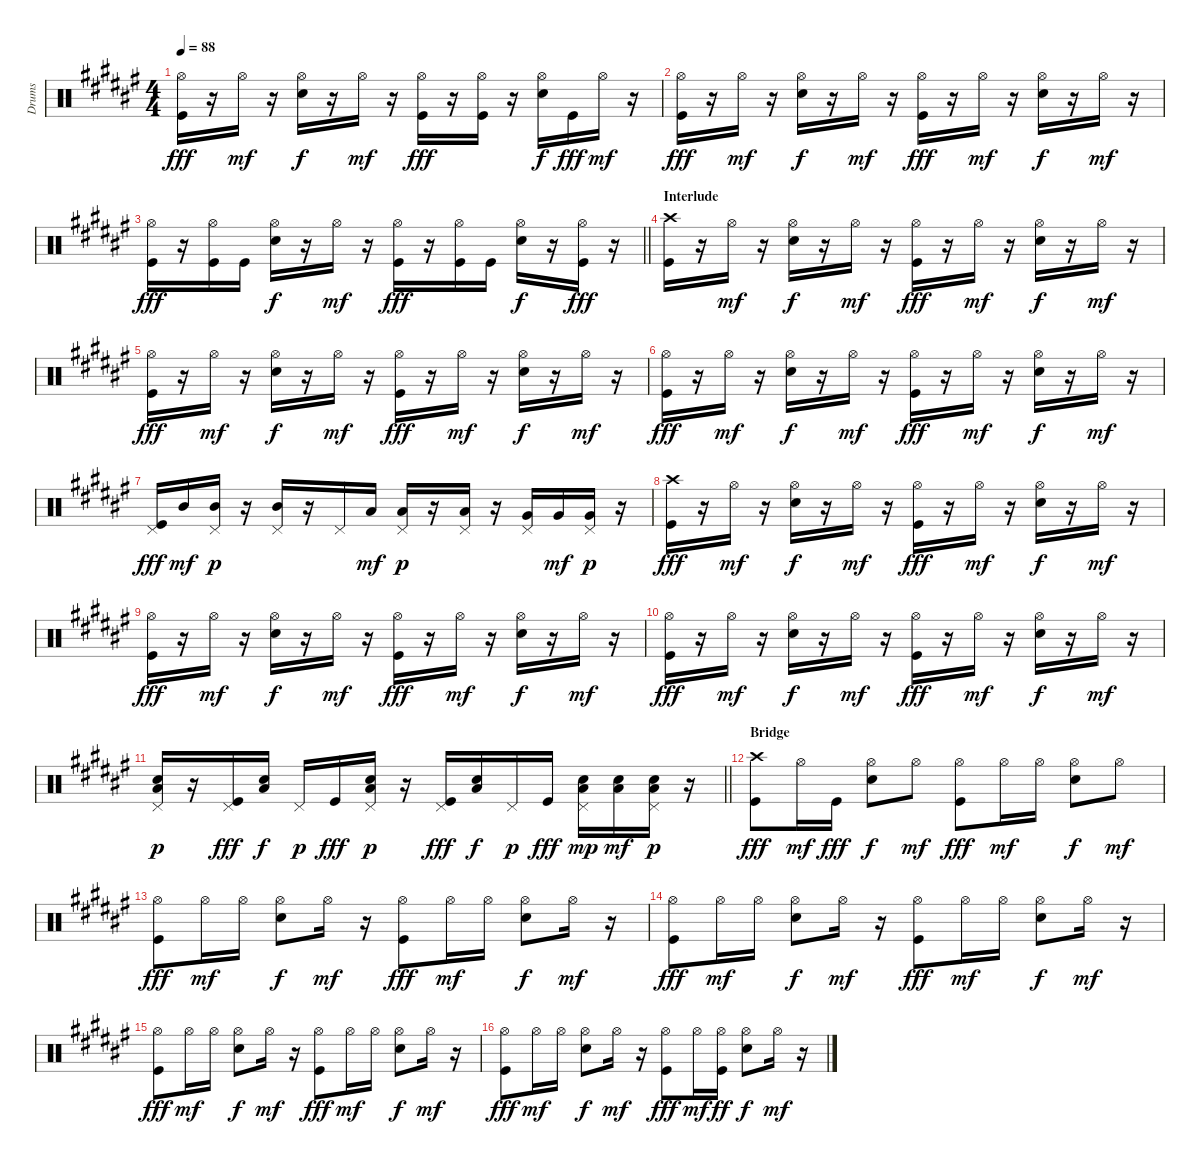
\track ("Drums" "Drums") {instrument percussion}
\staff {score}
\articulation defaults
\ts (4 4)
\tempo 88
\clef neutral
\ks f#
("Hi-Hat (open)" "Kick (hit)").16{dy fff} r.16 "Hi-Hat (open)".16{dy mf} r.16 ("Hi-Hat (open)" "Snare (hit) 2").16{dy f} r.16 "Hi-Hat (open)".16{dy mf} r.16 ("Hi-Hat (open)" "Kick (hit)").16{dy fff} r.16 ("Hi-Hat (open)" "Kick (hit)").16 r.16 ("Hi-Hat (open)" "Snare (hit) 2").16{dy f} "Kick (hit)".16{dy fff} "Hi-Hat (open)".16{dy mf} r.16 |
("Hi-Hat (open)" "Kick (hit)").16{dy fff} r.16 "Hi-Hat (open)".16{dy mf} r.16 ("Hi-Hat (open)" "Snare (hit) 2").16{dy f} r.16 "Hi-Hat (open)".16{dy mf} r.16 ("Hi-Hat (open)" "Kick (hit)").16{dy fff} r.16 "Hi-Hat (open)".16{dy mf} r.16 ("Hi-Hat (open)" "Snare (hit) 2").16{dy f} r.16 "Hi-Hat (open)".16{dy mf} r.16 |
\barLineRight lightlight
("Hi-Hat (open)" "Kick (hit)").16{dy fff} r.16 ("Hi-Hat (open)" "Kick (hit)").16 "Kick (hit)".16 ("Hi-Hat (open)" "Snare (hit) 2").16{dy f} r.16 "Hi-Hat (open)".16{dy mf} r.16 ("Hi-Hat (open)" "Kick (hit)").16{dy fff} r.16 ("Hi-Hat (open)" "Kick (hit)").16 "Kick (hit)".16 ("Hi-Hat (open)" "Snare (hit) 2").16{dy f} r.16 ("Hi-Hat (open)" "Kick (hit)").16{dy fff} r.16 |
\section ("" "Interlude")
("Crash high (hit)" "Kick (hit)").16 r.16 "Hi-Hat (open)".16{dy mf} r.16 ("Hi-Hat (open)" "Snare (hit) 2").16{dy f} r.16 "Hi-Hat (open)".16{dy mf} r.16 ("Hi-Hat (open)" "Kick (hit)").16{dy fff} r.16 "Hi-Hat (open)".16{dy mf} r.16 ("Hi-Hat (open)" "Snare (hit) 2").16{dy f} r.16 "Hi-Hat (open)".16{dy mf} r.16 |
("Hi-Hat (open)" "Kick (hit)").16{dy fff} r.16 "Hi-Hat (open)".16{dy mf} r.16 ("Hi-Hat (open)" "Snare (hit) 2").16{dy f} r.16 "Hi-Hat (open)".16{dy mf} r.16 ("Hi-Hat (open)" "Kick (hit)").16{dy fff} r.16 "Hi-Hat (open)".16{dy mf} r.16 ("Hi-Hat (open)" "Snare (hit) 2").16{dy f} r.16 "Hi-Hat (open)".16{dy mf} r.16 |
("Hi-Hat (open)" "Kick (hit)").16{dy fff} r.16 "Hi-Hat (open)".16{dy mf} r.16 ("Hi-Hat (open)" "Snare (hit) 2").16{dy f} r.16 "Hi-Hat (open)".16{dy mf} r.16 ("Hi-Hat (open)" "Kick (hit)").16{dy fff} r.16 "Hi-Hat (open)".16{dy mf} r.16 ("Hi-Hat (open)" "Snare (hit) 2").16{dy f} r.16 "Hi-Hat (open)".16{dy mf} r.16 |
("Pedal Hi-Hat (hit)" "Kick (hit)").16{dy fff} "Mid Tom (hit)".16{dy mf} ("Pedal Hi-Hat (hit)" "Mid Tom (hit)").16{dy p} r.16 ("Pedal Hi-Hat (hit)" "Mid Tom (hit)").16 r.16 "Pedal Hi-Hat (hit)".16 "Low Tom (hit)".16{dy mf} ("Pedal Hi-Hat (hit)" "Low Tom (hit)").16{dy p} r.16 ("Pedal Hi-Hat (hit)" "Low Tom (hit)").16 r.16 ("Pedal Hi-Hat (hit)" "Very Low Tom (hit)").16 "Very Low Tom (hit)".16{dy mf} ("Pedal Hi-Hat (hit)" "Very Low Tom (hit)").16{dy p} r.16 |
("Crash high (hit)" "Kick (hit)").16{dy fff} r.16 "Hi-Hat (open)".16{dy mf} r.16 ("Hi-Hat (open)" "Snare (hit) 2").16{dy f} r.16 "Hi-Hat (open)".16{dy mf} r.16 ("Hi-Hat (open)" "Kick (hit)").16{dy fff} r.16 "Hi-Hat (open)".16{dy mf} r.16 ("Hi-Hat (open)" "Snare (hit) 2").16{dy f} r.16 "Hi-Hat (open)".16{dy mf} r.16 |
("Hi-Hat (open)" "Kick (hit)").16{dy fff} r.16 "Hi-Hat (open)".16{dy mf} r.16 ("Hi-Hat (open)" "Snare (hit) 2").16{dy f} r.16 "Hi-Hat (open)".16{dy mf} r.16 ("Hi-Hat (open)" "Kick (hit)").16{dy fff} r.16 "Hi-Hat (open)".16{dy mf} r.16 ("Hi-Hat (open)" "Snare (hit) 2").16{dy f} r.16 "Hi-Hat (open)".16{dy mf} r.16 |
("Hi-Hat (open)" "Kick (hit)").16{dy fff} r.16 "Hi-Hat (open)".16{dy mf} r.16 ("Hi-Hat (open)" "Snare (hit) 2").16{dy f} r.16 "Hi-Hat (open)".16{dy mf} r.16 ("Hi-Hat (open)" "Kick (hit)").16{dy fff} r.16 "Hi-Hat (open)".16{dy mf} r.16 ("Hi-Hat (open)" "Snare (hit) 2").16{dy f} r.16 "Hi-Hat (open)".16{dy mf} r.16 |
\barLineRight lightlight
("Pedal Hi-Hat (hit)" "Low Tom (hit)" "Snare (hit) 2").16{dy p} r.16 ("Pedal Hi-Hat (hit)" "Kick (hit)").16{dy fff} ("Low Tom (hit)" "Snare (hit) 2").16{dy f} "Pedal Hi-Hat (hit)".16{dy p} "Kick (hit)".16{dy fff} ("Pedal Hi-Hat (hit)" "Low Tom (hit)" "Snare (hit) 2").16{dy p} r.16 ("Pedal Hi-Hat (hit)" "Kick (hit)").16{dy fff} ("Low Tom (hit)" "Snare (hit) 2").16{dy f} "Pedal Hi-Hat (hit)".16{dy p} "Kick (hit)".16{dy fff} ("Pedal Hi-Hat (hit)" "Low Tom (hit)" "Snare (hit) 2").16{dy mp} ("Low Tom (hit)" "Snare (hit) 2").16{dy mf} ("Pedal Hi-Hat (hit)" "Low Tom (hit)" "Snare (hit) 2").16{dy p} r.16 |
\section ("" "Bridge")
("Crash high (hit)" "Kick (hit)").8{dy fff} "Hi-Hat (open)".16{dy mf} "Kick (hit)".16{dy fff} ("Hi-Hat (open)" "Snare (hit) 2").8{dy f} "Hi-Hat (open)".8{dy mf} ("Hi-Hat (open)" "Kick (hit)").8{dy fff} "Hi-Hat (open)".16{dy mf} "Hi-Hat (open)".16 ("Hi-Hat (open)" "Snare (hit) 2").8{dy f} "Hi-Hat (open)".8{dy mf} |
("Hi-Hat (open)" "Kick (hit)").8{dy fff} "Hi-Hat (open)".16{dy mf} "Hi-Hat (open)".16 ("Hi-Hat (open)" "Snare (hit) 2").8{dy f} "Hi-Hat (open)".16{dy mf} r.16 ("Hi-Hat (open)" "Kick (hit)").8{dy fff} "Hi-Hat (open)".16{dy mf} "Hi-Hat (open)".16 ("Hi-Hat (open)" "Snare (hit) 2").8{dy f} "Hi-Hat (open)".16{dy mf} r.16 |
("Hi-Hat (open)" "Kick (hit)").8{dy fff} "Hi-Hat (open)".16{dy mf} "Hi-Hat (open)".16 ("Hi-Hat (open)" "Snare (hit) 2").8{dy f} "Hi-Hat (open)".16{dy mf} r.16 ("Hi-Hat (open)" "Kick (hit)").8{dy fff} "Hi-Hat (open)".16{dy mf} "Hi-Hat (open)".16 ("Hi-Hat (open)" "Snare (hit) 2").8{dy f} "Hi-Hat (open)".16{dy mf} r.16 |
("Hi-Hat (open)" "Kick (hit)").8{dy fff} "Hi-Hat (open)".16{dy mf} "Hi-Hat (open)".16 ("Hi-Hat (open)" "Snare (hit) 2").8{dy f} "Hi-Hat (open)".16{dy mf} r.16 ("Hi-Hat (open)" "Kick (hit)").8{dy fff} "Hi-Hat (open)".16{dy mf} "Hi-Hat (open)".16 ("Hi-Hat (open)" "Snare (hit) 2").8{dy f} "Hi-Hat (open)".16{dy mf} r.16 |
("Hi-Hat (open)" "Kick (hit)").8{dy fff} "Hi-Hat (open)".16{dy mf} "Hi-Hat (open)".16 ("Hi-Hat (open)" "Snare (hit) 2").8{dy f} "Hi-Hat (open)".16{dy mf} r.16 ("Hi-Hat (open)" "Kick (hit)").8{dy fff} "Hi-Hat (open)".16{dy mf} ("Hi-Hat (open)" "Kick (hit)").16{dy ff} ("Hi-Hat (open)" "Snare (hit) 2").8{dy f} "Hi-Hat (open)".16{dy mf} r.16
